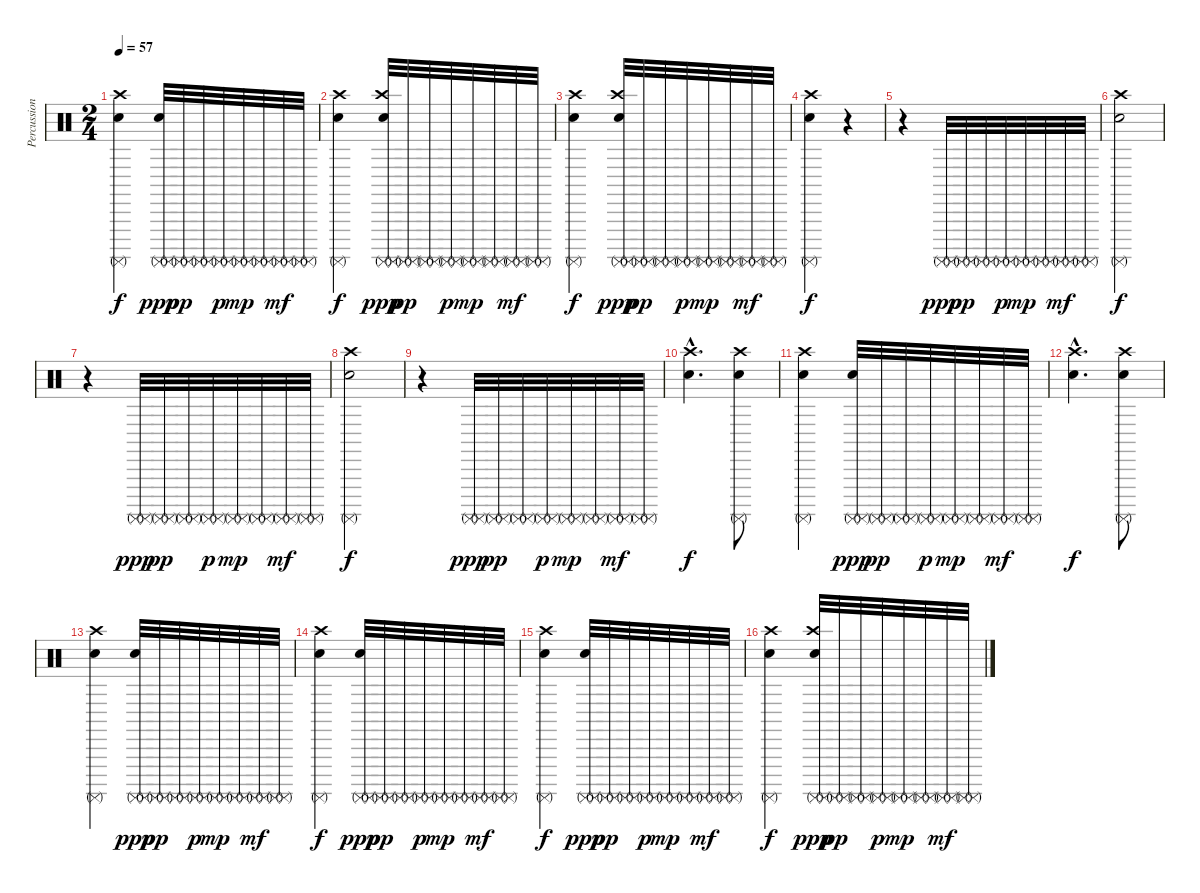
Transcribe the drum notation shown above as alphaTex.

\track ("Percussions" "Percussion") {instrument percussion}
\staff {score}
\articulation defaults
\ts (2 4)
\tempo 57
\clef neutral
\ks c
("Crash high (hit)" "Surdo (mute)" "Snare (hit) 2").4{dy f} ("Surdo (mute)" "Snare (hit) 2" "Surdo (mute)").32{dy ppp} ("Surdo (mute)" "Surdo (mute)").32{dy pp} ("Surdo (mute)" "Surdo (mute)").32 ("Surdo (mute)" "Surdo (mute)").32{dy p} ("Surdo (mute)" "Surdo (mute)").32{dy mp} ("Surdo (mute)" "Surdo (mute)").32 ("Surdo (mute)" "Surdo (mute)").32{dy mf} ("Surdo (mute)" "Surdo (mute)").32 |
("Crash high (hit)" "Surdo (mute)" "Snare (hit) 2").4{dy f} ("Crash high (hit)" "Surdo (mute)" "Snare (hit) 2" "Surdo (mute)").32{dy ppp} ("Surdo (mute)" "Surdo (mute)").32{dy pp} ("Surdo (mute)" "Surdo (mute)").32 ("Surdo (mute)" "Surdo (mute)").32{dy p} ("Surdo (mute)" "Surdo (mute)").32{dy mp} ("Surdo (mute)" "Surdo (mute)").32 ("Surdo (mute)" "Surdo (mute)").32{dy mf} ("Surdo (mute)" "Surdo (mute)").32 |
("Crash high (hit)" "Surdo (mute)" "Snare (hit) 2").4{dy f} ("Crash high (hit)" "Surdo (mute)" "Snare (hit) 2" "Surdo (mute)").32{dy ppp} ("Surdo (mute)" "Surdo (mute)").32{dy pp} ("Surdo (mute)" "Surdo (mute)").32 ("Surdo (mute)" "Surdo (mute)").32{dy p} ("Surdo (mute)" "Surdo (mute)").32{dy mp} ("Surdo (mute)" "Surdo (mute)").32 ("Surdo (mute)" "Surdo (mute)").32{dy mf} ("Surdo (mute)" "Surdo (mute)").32 |
("Crash high (hit)" "Surdo (mute)" "Snare (hit) 2").4{dy f} r.4 |
r.4 ("Surdo (mute)" "Surdo (mute)").32{dy ppp} ("Surdo (mute)" "Surdo (mute)").32{dy pp} ("Surdo (mute)" "Surdo (mute)").32 ("Surdo (mute)" "Surdo (mute)").32{dy p} ("Surdo (mute)" "Surdo (mute)").32{dy mp} ("Surdo (mute)" "Surdo (mute)").32 ("Surdo (mute)" "Surdo (mute)").32{dy mf} ("Surdo (mute)" "Surdo (mute)").32 |
("Crash high (hit)" "Surdo (mute)" "Snare (hit) 2").2{dy f} |
r.4 ("Surdo (mute)" "Surdo (mute)").32{dy ppp} ("Surdo (mute)" "Surdo (mute)").32{dy pp} ("Surdo (mute)" "Surdo (mute)").32 ("Surdo (mute)" "Surdo (mute)").32{dy p} ("Surdo (mute)" "Surdo (mute)").32{dy mp} ("Surdo (mute)" "Surdo (mute)").32 ("Surdo (mute)" "Surdo (mute)").32{dy mf} ("Surdo (mute)" "Surdo (mute)").32 |
("Crash high (hit)" "Surdo (mute)" "Snare (hit) 2").2{dy f} |
r.4 ("Surdo (mute)" "Surdo (mute)").32{dy ppp} ("Surdo (mute)" "Surdo (mute)").32{dy pp} ("Surdo (mute)" "Surdo (mute)").32 ("Surdo (mute)" "Surdo (mute)").32{dy p} ("Surdo (mute)" "Surdo (mute)").32{dy mp} ("Surdo (mute)" "Surdo (mute)").32 ("Surdo (mute)" "Surdo (mute)").32{dy mf} ("Surdo (mute)" "Surdo (mute)").32 |
("Crash high (hit)"{hac} "Snare (hit) 2").4{d dy f} ("Crash high (hit)" "Surdo (mute)" "Snare (hit) 2").8 |
("Crash high (hit)" "Surdo (mute)" "Snare (hit) 2").4 ("Surdo (mute)" "Snare (hit) 2" "Surdo (mute)").32{dy ppp} ("Surdo (mute)" "Surdo (mute)").32{dy pp} ("Surdo (mute)" "Surdo (mute)").32 ("Surdo (mute)" "Surdo (mute)").32{dy p} ("Surdo (mute)" "Surdo (mute)").32{dy mp} ("Surdo (mute)" "Surdo (mute)").32 ("Surdo (mute)" "Surdo (mute)").32{dy mf} ("Surdo (mute)" "Surdo (mute)").32 |
("Crash high (hit)"{hac} "Snare (hit) 2").4{d dy f} ("Crash high (hit)" "Surdo (mute)" "Snare (hit) 2").8 |
("Crash high (hit)" "Surdo (mute)" "Snare (hit) 2").4 ("Surdo (mute)" "Snare (hit) 2" "Surdo (mute)").32{dy ppp} ("Surdo (mute)" "Surdo (mute)").32{dy pp} ("Surdo (mute)" "Surdo (mute)").32 ("Surdo (mute)" "Surdo (mute)").32{dy p} ("Surdo (mute)" "Surdo (mute)").32{dy mp} ("Surdo (mute)" "Surdo (mute)").32 ("Surdo (mute)" "Surdo (mute)").32{dy mf} ("Surdo (mute)" "Surdo (mute)").32 |
("Crash high (hit)" "Surdo (mute)" "Snare (hit) 2").4{dy f} ("Surdo (mute)" "Snare (hit) 2" "Surdo (mute)").32{dy ppp} ("Surdo (mute)" "Surdo (mute)").32{dy pp} ("Surdo (mute)" "Surdo (mute)").32 ("Surdo (mute)" "Surdo (mute)").32{dy p} ("Surdo (mute)" "Surdo (mute)").32{dy mp} ("Surdo (mute)" "Surdo (mute)").32 ("Surdo (mute)" "Surdo (mute)").32{dy mf} ("Surdo (mute)" "Surdo (mute)").32 |
("Crash high (hit)" "Surdo (mute)" "Snare (hit) 2").4{dy f} ("Surdo (mute)" "Snare (hit) 2" "Surdo (mute)").32{dy ppp} ("Surdo (mute)" "Surdo (mute)").32{dy pp} ("Surdo (mute)" "Surdo (mute)").32 ("Surdo (mute)" "Surdo (mute)").32{dy p} ("Surdo (mute)" "Surdo (mute)").32{dy mp} ("Surdo (mute)" "Surdo (mute)").32 ("Surdo (mute)" "Surdo (mute)").32{dy mf} ("Surdo (mute)" "Surdo (mute)").32 |
("Crash high (hit)" "Surdo (mute)" "Snare (hit) 2").4{dy f} ("Crash high (hit)" "Surdo (mute)" "Snare (hit) 2" "Surdo (mute)").32{dy ppp} ("Surdo (mute)" "Surdo (mute)").32{dy pp} ("Surdo (mute)" "Surdo (mute)").32 ("Surdo (mute)" "Surdo (mute)").32{dy p} ("Surdo (mute)" "Surdo (mute)").32{dy mp} ("Surdo (mute)" "Surdo (mute)").32 ("Surdo (mute)" "Surdo (mute)").32{dy mf} ("Surdo (mute)" "Surdo (mute)").32
